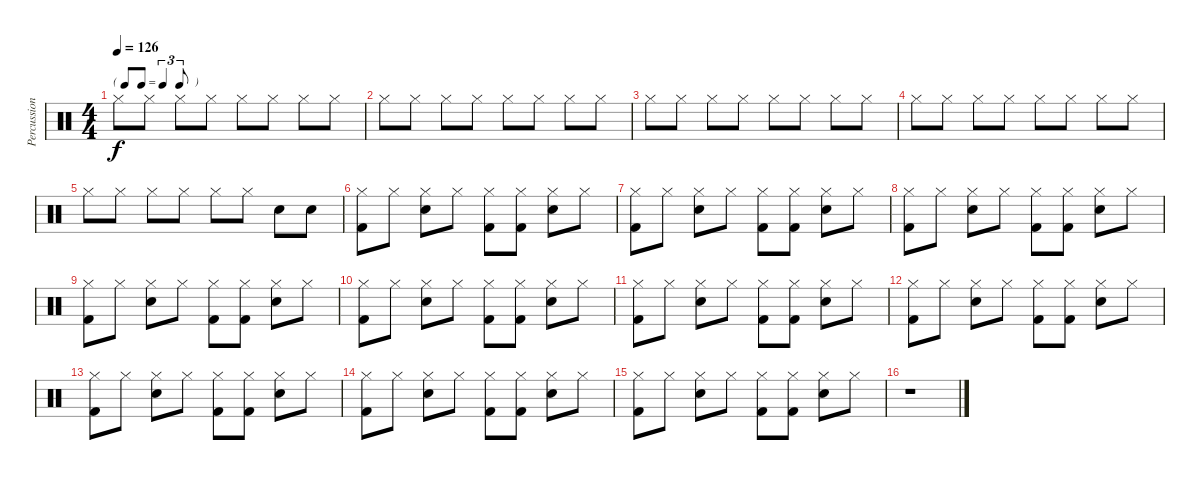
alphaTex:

\track ("Percussion" "Percussion") {instrument percussion}
\staff {score}
\articulation defaults
\ts (4 4)
\tf triplet8th
\tempo 126
\clef neutral
\ks c "Hi-Hat (closed)".8{dy f} "Hi-Hat (closed)".8 "Hi-Hat (closed)".8 "Hi-Hat (closed)".8 "Hi-Hat (closed)".8 "Hi-Hat (closed)".8 "Hi-Hat (closed)".8 "Hi-Hat (closed)".8
|
"Hi-Hat (closed)".8 "Hi-Hat (closed)".8 "Hi-Hat (closed)".8 "Hi-Hat (closed)".8 "Hi-Hat (closed)".8 "Hi-Hat (closed)".8 "Hi-Hat (closed)".8 "Hi-Hat (closed)".8 |
"Hi-Hat (closed)".8 "Hi-Hat (closed)".8 "Hi-Hat (closed)".8 "Hi-Hat (closed)".8 "Hi-Hat (closed)".8 "Hi-Hat (closed)".8 "Hi-Hat (closed)".8 "Hi-Hat (closed)".8 |
"Hi-Hat (closed)".8 "Hi-Hat (closed)".8 "Hi-Hat (closed)".8 "Hi-Hat (closed)".8 "Hi-Hat (closed)".8 "Hi-Hat (closed)".8 "Hi-Hat (closed)".8 "Hi-Hat (closed)".8 |
"Hi-Hat (closed)".8 "Hi-Hat (closed)".8 "Hi-Hat (closed)".8 "Hi-Hat (closed)".8 "Hi-Hat (closed)".8 "Hi-Hat (closed)".8 "Electric Snare (hit)".8 "Electric Snare (hit)".8 |
("Hi-Hat (closed)" "Kick (hit) 2").8 "Hi-Hat (closed)".8 ("Hi-Hat (closed)" "Electric Snare (hit)").8 "Hi-Hat (closed)".8 ("Hi-Hat (closed)" "Kick (hit) 2").8 ("Hi-Hat (closed)" "Kick (hit) 2").8 ("Hi-Hat (closed)" "Electric Snare (hit)").8 "Hi-Hat (closed)".8 |
("Hi-Hat (closed)" "Kick (hit) 2").8 "Hi-Hat (closed)".8 ("Hi-Hat (closed)" "Electric Snare (hit)").8 "Hi-Hat (closed)".8 ("Hi-Hat (closed)" "Kick (hit) 2").8 ("Hi-Hat (closed)" "Kick (hit) 2").8 ("Hi-Hat (closed)" "Electric Snare (hit)").8 "Hi-Hat (closed)".8 |
("Hi-Hat (closed)" "Kick (hit) 2").8 "Hi-Hat (closed)".8 ("Hi-Hat (closed)" "Electric Snare (hit)").8 "Hi-Hat (closed)".8 ("Hi-Hat (closed)" "Kick (hit) 2").8 ("Hi-Hat (closed)" "Kick (hit) 2").8 ("Hi-Hat (closed)" "Electric Snare (hit)").8 "Hi-Hat (closed)".8 |
("Hi-Hat (closed)" "Kick (hit) 2").8 "Hi-Hat (closed)".8 ("Hi-Hat (closed)" "Electric Snare (hit)").8 "Hi-Hat (closed)".8 ("Hi-Hat (closed)" "Kick (hit) 2").8 ("Hi-Hat (closed)" "Kick (hit) 2").8 ("Hi-Hat (closed)" "Electric Snare (hit)").8 "Hi-Hat (closed)".8 |
("Hi-Hat (closed)" "Kick (hit) 2").8 "Hi-Hat (closed)".8 ("Hi-Hat (closed)" "Electric Snare (hit)").8 "Hi-Hat (closed)".8 ("Hi-Hat (closed)" "Kick (hit) 2").8 ("Hi-Hat (closed)" "Kick (hit) 2").8 ("Hi-Hat (closed)" "Electric Snare (hit)").8 "Hi-Hat (closed)".8 |
("Hi-Hat (closed)" "Kick (hit) 2").8 "Hi-Hat (closed)".8 ("Hi-Hat (closed)" "Electric Snare (hit)").8 "Hi-Hat (closed)".8 ("Hi-Hat (closed)" "Kick (hit) 2").8 ("Hi-Hat (closed)" "Kick (hit) 2").8 ("Hi-Hat (closed)" "Electric Snare (hit)").8 "Hi-Hat (closed)".8 |
("Hi-Hat (closed)" "Kick (hit) 2").8 "Hi-Hat (closed)".8 ("Hi-Hat (closed)" "Electric Snare (hit)").8 "Hi-Hat (closed)".8 ("Hi-Hat (closed)" "Kick (hit) 2").8 ("Hi-Hat (closed)" "Kick (hit) 2").8 ("Hi-Hat (closed)" "Electric Snare (hit)").8 "Hi-Hat (closed)".8 |
("Hi-Hat (closed)" "Kick (hit) 2").8 "Hi-Hat (closed)".8 ("Hi-Hat (closed)" "Electric Snare (hit)").8 "Hi-Hat (closed)".8 ("Hi-Hat (closed)" "Kick (hit) 2").8 ("Hi-Hat (closed)" "Kick (hit) 2").8 ("Hi-Hat (closed)" "Electric Snare (hit)").8 "Hi-Hat (closed)".8 |
("Hi-Hat (closed)" "Kick (hit) 2").8 "Hi-Hat (closed)".8 ("Hi-Hat (closed)" "Electric Snare (hit)").8 "Hi-Hat (closed)".8 ("Hi-Hat (closed)" "Kick (hit) 2").8 ("Hi-Hat (closed)" "Kick (hit) 2").8 ("Hi-Hat (closed)" "Electric Snare (hit)").8 "Hi-Hat (closed)".8 |
("Hi-Hat (closed)" "Kick (hit) 2").8 "Hi-Hat (closed)".8 ("Hi-Hat (closed)" "Electric Snare (hit)").8 "Hi-Hat (closed)".8 ("Hi-Hat (closed)" "Kick (hit) 2").8 ("Hi-Hat (closed)" "Kick (hit) 2").8 ("Hi-Hat (closed)" "Electric Snare (hit)").8 "Hi-Hat (closed)".8 |
r.1
